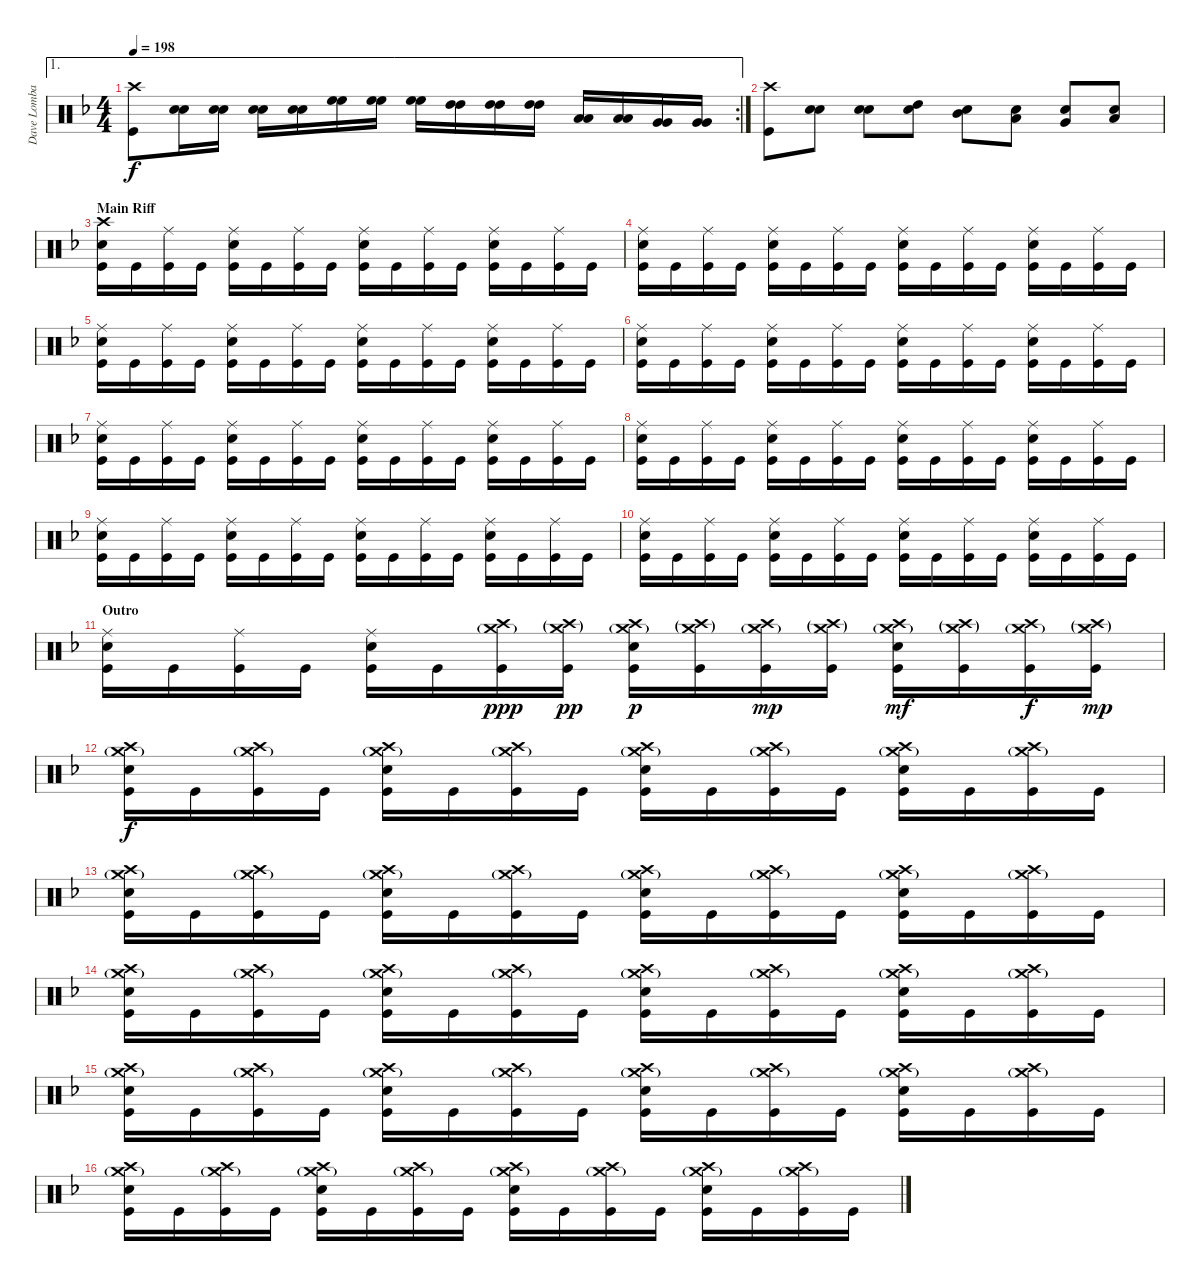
\track ("Dave Lombardo - Drums" "Dave Lomba") {instrument percussion}
\staff {score}
\articulation defaults
\ae 1
\rc 2
\ts (4 4)
\tempo 198
\clef neutral
\ks f
("Crash high (hit)" "Kick (hit)").8{dy f} ("Snare (hit) 2" "Snare (hit) 2").16 ("Snare (hit) 2" "Snare (hit) 2").16 ("Snare (hit) 2" "Snare (hit) 2").16 ("Snare (hit) 2" "Snare (hit) 2").16 ("High Floor Tom (hit)" "High Floor Tom (hit)").16 ("High Floor Tom (hit)" "High Floor Tom (hit)").16 ("High Floor Tom (hit)" "High Floor Tom (hit)").16 ("High Tom (hit)" "High Tom (hit)").16 ("High Tom (hit)" "High Tom (hit)").16 ("High Tom (hit)" "High Tom (hit)").16 ("Low Tom (hit)" "Low Tom (hit)").16 ("Low Tom (hit)" "Low Tom (hit)").16 ("Very Low Tom (hit)" "Very Low Tom (hit)").16 ("Very Low Tom (hit)" "Very Low Tom (hit)").16 |
("Crash high (hit)" "Kick (hit)").8 ("Snare (hit) 2" "Snare (hit) 2").8 ("Snare (hit) 2" "Snare (hit) 2").8 ("Snare (hit) 2" "High Tom (hit)").8 ("Snare (hit) 2" "Mid Tom (hit)").8 ("Snare (hit) 2" "Low Tom (hit)").8 ("Snare (hit) 2" "Very Low Tom (hit)").8 ("Snare (hit) 2" "Low Floor Tom (hit)").8 |
\section ("" "Main Riff")
("Crash high (hit)" "Snare (hit) 2" "Kick (hit)").16 "Kick (hit)".16 ("Ride (middle)" "Kick (hit)").16 "Kick (hit)".16 ("Ride (middle)" "Snare (hit) 2" "Kick (hit)").16 "Kick (hit)".16 ("Ride (middle)" "Kick (hit)").16 "Kick (hit)".16 ("Ride (middle)" "Snare (hit) 2" "Kick (hit)").16 "Kick (hit)".16 ("Ride (middle)" "Kick (hit)").16 "Kick (hit)".16 ("Ride (middle)" "Snare (hit) 2" "Kick (hit)").16 "Kick (hit)".16 ("Ride (middle)" "Kick (hit)").16 "Kick (hit)".16 |
("Ride (middle)" "Snare (hit) 2" "Kick (hit)").16 "Kick (hit)".16 ("Ride (middle)" "Kick (hit)").16 "Kick (hit)".16 ("Ride (middle)" "Snare (hit) 2" "Kick (hit)").16 "Kick (hit)".16 ("Ride (middle)" "Kick (hit)").16 "Kick (hit)".16 ("Ride (middle)" "Snare (hit) 2" "Kick (hit)").16 "Kick (hit)".16 ("Ride (middle)" "Kick (hit)").16 "Kick (hit)".16 ("Ride (middle)" "Snare (hit) 2" "Kick (hit)").16 "Kick (hit)".16 ("Ride (middle)" "Kick (hit)").16 "Kick (hit)".16 |
("Ride (middle)" "Snare (hit) 2" "Kick (hit)").16 "Kick (hit)".16 ("Ride (middle)" "Kick (hit)").16 "Kick (hit)".16 ("Ride (middle)" "Snare (hit) 2" "Kick (hit)").16 "Kick (hit)".16 ("Ride (middle)" "Kick (hit)").16 "Kick (hit)".16 ("Ride (middle)" "Snare (hit) 2" "Kick (hit)").16 "Kick (hit)".16 ("Ride (middle)" "Kick (hit)").16 "Kick (hit)".16 ("Ride (middle)" "Snare (hit) 2" "Kick (hit)").16 "Kick (hit)".16 ("Ride (middle)" "Kick (hit)").16 "Kick (hit)".16 |
("Ride (middle)" "Snare (hit) 2" "Kick (hit)").16 "Kick (hit)".16 ("Ride (middle)" "Kick (hit)").16 "Kick (hit)".16 ("Ride (middle)" "Snare (hit) 2" "Kick (hit)").16 "Kick (hit)".16 ("Ride (middle)" "Kick (hit)").16 "Kick (hit)".16 ("Ride (middle)" "Snare (hit) 2" "Kick (hit)").16 "Kick (hit)".16 ("Ride (middle)" "Kick (hit)").16 "Kick (hit)".16 ("Ride (middle)" "Snare (hit) 2" "Kick (hit)").16 "Kick (hit)".16 ("Ride (middle)" "Kick (hit)").16 "Kick (hit)".16 |
("Ride (middle)" "Snare (hit) 2" "Kick (hit)").16 "Kick (hit)".16 ("Ride (middle)" "Kick (hit)").16 "Kick (hit)".16 ("Ride (middle)" "Snare (hit) 2" "Kick (hit)").16 "Kick (hit)".16 ("Ride (middle)" "Kick (hit)").16 "Kick (hit)".16 ("Ride (middle)" "Snare (hit) 2" "Kick (hit)").16 "Kick (hit)".16 ("Ride (middle)" "Kick (hit)").16 "Kick (hit)".16 ("Ride (middle)" "Snare (hit) 2" "Kick (hit)").16 "Kick (hit)".16 ("Ride (middle)" "Kick (hit)").16 "Kick (hit)".16 |
("Ride (middle)" "Snare (hit) 2" "Kick (hit)").16 "Kick (hit)".16 ("Ride (middle)" "Kick (hit)").16 "Kick (hit)".16 ("Ride (middle)" "Snare (hit) 2" "Kick (hit)").16 "Kick (hit)".16 ("Ride (middle)" "Kick (hit)").16 "Kick (hit)".16 ("Ride (middle)" "Snare (hit) 2" "Kick (hit)").16 "Kick (hit)".16 ("Ride (middle)" "Kick (hit)").16 "Kick (hit)".16 ("Ride (middle)" "Snare (hit) 2" "Kick (hit)").16 "Kick (hit)".16 ("Ride (middle)" "Kick (hit)").16 "Kick (hit)".16 |
("Ride (middle)" "Snare (hit) 2" "Kick (hit)").16 "Kick (hit)".16 ("Ride (middle)" "Kick (hit)").16 "Kick (hit)".16 ("Ride (middle)" "Snare (hit) 2" "Kick (hit)").16 "Kick (hit)".16 ("Ride (middle)" "Kick (hit)").16 "Kick (hit)".16 ("Ride (middle)" "Snare (hit) 2" "Kick (hit)").16 "Kick (hit)".16 ("Ride (middle)" "Kick (hit)").16 "Kick (hit)".16 ("Ride (middle)" "Snare (hit) 2" "Kick (hit)").16 "Kick (hit)".16 ("Ride (middle)" "Kick (hit)").16 "Kick (hit)".16 |
("Ride (middle)" "Snare (hit) 2" "Kick (hit)").16 "Kick (hit)".16 ("Ride (middle)" "Kick (hit)").16 "Kick (hit)".16 ("Ride (middle)" "Snare (hit) 2" "Kick (hit)").16 "Kick (hit)".16 ("Ride (middle)" "Kick (hit)").16 "Kick (hit)".16 ("Ride (middle)" "Snare (hit) 2" "Kick (hit)").16 "Kick (hit)".16 ("Ride (middle)" "Kick (hit)").16 "Kick (hit)".16 ("Ride (middle)" "Snare (hit) 2" "Kick (hit)").16 "Kick (hit)".16 ("Ride (middle)" "Kick (hit)").16 "Kick (hit)".16 |
\section ("" "Outro")
("Ride (middle)" "Snare (hit) 2" "Kick (hit)").16 "Kick (hit)".16 ("Ride (middle)" "Kick (hit)").16 "Kick (hit)".16 ("Ride (middle)" "Snare (hit) 2" "Kick (hit)").16 "Kick (hit)".16 ("Crash high (hit)" "Crash medium (hit)"{g} "Kick (hit)").16{dy ppp} ("Crash high (hit)"{g} "Crash medium (hit)"{g} "Kick (hit)").16{dy pp} ("Crash high (hit)" "Crash medium (hit)"{g} "Snare (hit) 2" "Kick (hit)").16{dy p} ("Crash high (hit)"{g} "Crash medium (hit)"{g} "Kick (hit)").16 ("Crash high (hit)" "Crash medium (hit)"{g} "Kick (hit)").16{dy mp} ("Crash high (hit)"{g} "Crash medium (hit)"{g} "Kick (hit)").16 ("Crash high (hit)" "Crash medium (hit)"{g} "Snare (hit) 2" "Kick (hit)").16{dy mf} ("Crash high (hit)"{g} "Crash medium (hit)"{g} "Kick (hit)").16 ("Crash high (hit)" "Crash medium (hit)"{g} "Kick (hit)").16{dy f} ("Crash high (hit)"{g} "Crash medium (hit)"{g} "Kick (hit)").16{dy mp} |
("Crash high (hit)" "Crash medium (hit)"{g} "Snare (hit) 2" "Kick (hit)").16{dy f} "Kick (hit)".16 ("Crash high (hit)" "Crash medium (hit)"{g} "Kick (hit)").16 "Kick (hit)".16 ("Crash high (hit)" "Crash medium (hit)"{g} "Snare (hit) 2" "Kick (hit)").16 "Kick (hit)".16 ("Crash high (hit)" "Crash medium (hit)"{g} "Kick (hit)").16 "Kick (hit)".16 ("Crash high (hit)" "Crash medium (hit)"{g} "Snare (hit) 2" "Kick (hit)").16 "Kick (hit)".16 ("Crash high (hit)" "Crash medium (hit)"{g} "Kick (hit)").16 "Kick (hit)".16 ("Crash high (hit)" "Crash medium (hit)"{g} "Snare (hit) 2" "Kick (hit)").16 "Kick (hit)".16 ("Crash high (hit)" "Crash medium (hit)"{g} "Kick (hit)").16 "Kick (hit)".16 |
("Crash high (hit)" "Crash medium (hit)"{g} "Snare (hit) 2" "Kick (hit)").16 "Kick (hit)".16 ("Crash high (hit)" "Crash medium (hit)"{g} "Kick (hit)").16 "Kick (hit)".16 ("Crash high (hit)" "Crash medium (hit)"{g} "Snare (hit) 2" "Kick (hit)").16 "Kick (hit)".16 ("Crash high (hit)" "Crash medium (hit)"{g} "Kick (hit)").16 "Kick (hit)".16 ("Crash high (hit)" "Crash medium (hit)"{g} "Snare (hit) 2" "Kick (hit)").16 "Kick (hit)".16 ("Crash high (hit)" "Crash medium (hit)"{g} "Kick (hit)").16 "Kick (hit)".16 ("Crash high (hit)" "Crash medium (hit)"{g} "Snare (hit) 2" "Kick (hit)").16 "Kick (hit)".16 ("Crash high (hit)" "Crash medium (hit)"{g} "Kick (hit)").16 "Kick (hit)".16 |
("Crash high (hit)" "Crash medium (hit)"{g} "Snare (hit) 2" "Kick (hit)").16 "Kick (hit)".16 ("Crash high (hit)" "Crash medium (hit)"{g} "Kick (hit)").16 "Kick (hit)".16 ("Crash high (hit)" "Crash medium (hit)"{g} "Snare (hit) 2" "Kick (hit)").16 "Kick (hit)".16 ("Crash high (hit)" "Crash medium (hit)"{g} "Kick (hit)").16 "Kick (hit)".16 ("Crash high (hit)" "Crash medium (hit)"{g} "Snare (hit) 2" "Kick (hit)").16 "Kick (hit)".16 ("Crash high (hit)" "Crash medium (hit)"{g} "Kick (hit)").16 "Kick (hit)".16 ("Crash high (hit)" "Crash medium (hit)"{g} "Snare (hit) 2" "Kick (hit)").16 "Kick (hit)".16 ("Crash high (hit)" "Crash medium (hit)"{g} "Kick (hit)").16 "Kick (hit)".16 |
("Crash high (hit)" "Crash medium (hit)"{g} "Snare (hit) 2" "Kick (hit)").16 "Kick (hit)".16 ("Crash high (hit)" "Crash medium (hit)"{g} "Kick (hit)").16 "Kick (hit)".16 ("Crash high (hit)" "Crash medium (hit)"{g} "Snare (hit) 2" "Kick (hit)").16 "Kick (hit)".16 ("Crash high (hit)" "Crash medium (hit)"{g} "Kick (hit)").16 "Kick (hit)".16 ("Crash high (hit)" "Crash medium (hit)"{g} "Snare (hit) 2" "Kick (hit)").16 "Kick (hit)".16 ("Crash high (hit)" "Crash medium (hit)"{g} "Kick (hit)").16 "Kick (hit)".16 ("Crash high (hit)" "Crash medium (hit)"{g} "Snare (hit) 2" "Kick (hit)").16 "Kick (hit)".16 ("Crash high (hit)" "Crash medium (hit)"{g} "Kick (hit)").16 "Kick (hit)".16 |
("Crash high (hit)" "Crash medium (hit)"{g} "Snare (hit) 2" "Kick (hit)").16 "Kick (hit)".16 ("Crash high (hit)" "Crash medium (hit)"{g} "Kick (hit)").16 "Kick (hit)".16 ("Crash high (hit)" "Crash medium (hit)"{g} "Snare (hit) 2" "Kick (hit)").16 "Kick (hit)".16 ("Crash high (hit)" "Crash medium (hit)"{g} "Kick (hit)").16 "Kick (hit)".16 ("Crash high (hit)" "Crash medium (hit)"{g} "Snare (hit) 2" "Kick (hit)").16 "Kick (hit)".16 ("Crash high (hit)" "Crash medium (hit)"{g} "Kick (hit)").16 "Kick (hit)".16 ("Crash high (hit)" "Crash medium (hit)"{g} "Snare (hit) 2" "Kick (hit)").16 "Kick (hit)".16 ("Crash high (hit)" "Crash medium (hit)"{g} "Kick (hit)").16 "Kick (hit)".16
